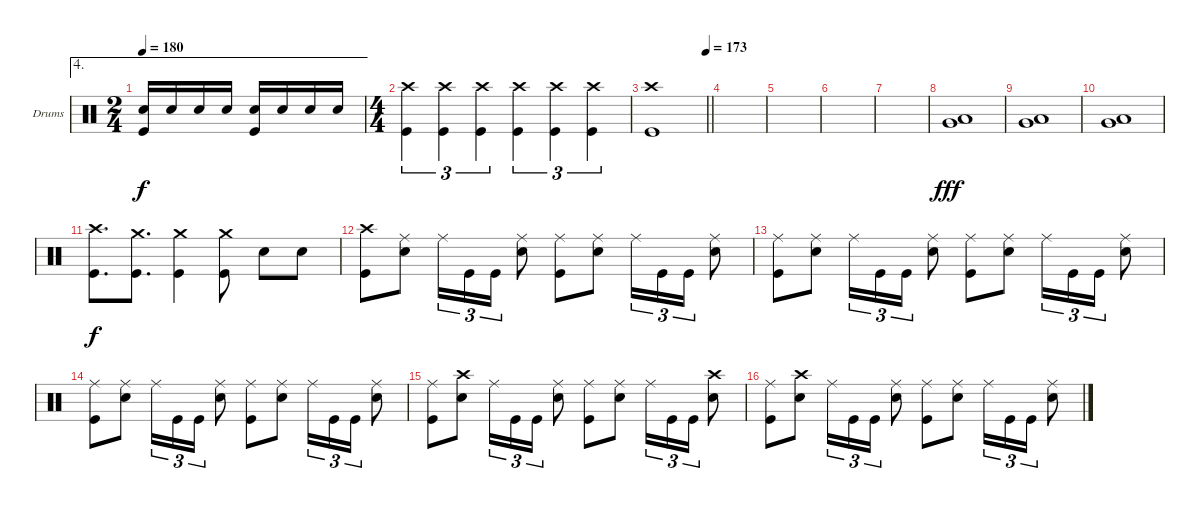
\bracketExtendMode groupsimilarinstruments
\firstSystemTrackNameOrientation horizontal
\otherSystemsTrackNameOrientation horizontal
\track ("Drums" "Drums") {instrument percussion}
\staff {score}
\articulation defaults
\ae 4
\ts (2 4)
\beaming (8 2 2)
\tempo 180
\clef neutral
\ks c
("Snare (hit) 2" "Kick (hit)").16{dy f} "Snare (hit) 2".16 "Snare (hit) 2".16 "Snare (hit) 2".16 ("Snare (hit) 2" "Kick (hit)").16 "Snare (hit) 2".16 "Snare (hit) 2".16 "Snare (hit) 2".16 |
\ts (4 4)
\beaming (8 2 2 2 2)
("Crash high (hit)" "Kick (hit)").4{tu (3 2)} ("Crash high (hit)" "Kick (hit)").4{tu (3 2)} ("Crash high (hit)" "Kick (hit)").4{tu (3 2)} ("Crash high (hit)" "Kick (hit)").4{tu (3 2)} ("Crash high (hit)" "Kick (hit)").4{tu (3 2)} ("Crash high (hit)" "Kick (hit)").4{tu (3 2)} |
\tempo (173 1)
\barLineRight lightlight
("Crash high (hit)" "Kick (hit)").1 |
|
|
|
|
("Very Low Tom (hit)" "Low Tom (hit)").1{dy fff} |
("Very Low Tom (hit)" "Low Tom (hit)").1 |
("Very Low Tom (hit)" "Low Tom (hit)").1 |
("Crash high (hit)" "Kick (hit)").8{d dy f} ("Kick (hit)" "Crash medium (hit)").8{d} ("Kick (hit)" "Crash medium (hit)").4 ("Kick (hit)" "Crash medium (hit)").8 "Snare (hit) 2".8 "Snare (hit) 2".8 |
("Crash high (hit)" "Kick (hit)").8 ("Snare (hit) 2" "Ride (middle)").8 "Ride (middle)".16{tu (3 2)} "Kick (hit)".16{tu (3 2)} "Kick (hit)".16{tu (3 2)} ("Snare (hit) 2" "Ride (middle)").8 ("Kick (hit)" "Ride (middle)").8 ("Snare (hit) 2" "Ride (middle)").8 "Ride (middle)".16{tu (3 2)} "Kick (hit)".16{tu (3 2)} "Kick (hit)".16{tu (3 2)} ("Snare (hit) 2" "Ride (middle)").8 |
("Kick (hit)" "Ride (middle)").8 ("Snare (hit) 2" "Ride (middle)").8 "Ride (middle)".16{tu (3 2)} "Kick (hit)".16{tu (3 2)} "Kick (hit)".16{tu (3 2)} ("Snare (hit) 2" "Ride (middle)").8 ("Kick (hit)" "Ride (middle)").8 ("Snare (hit) 2" "Ride (middle)").8 "Ride (middle)".16{tu (3 2)} "Kick (hit)".16{tu (3 2)} "Kick (hit)".16{tu (3 2)} ("Snare (hit) 2" "Ride (middle)").8 |
("Kick (hit)" "Ride (middle)").8 ("Snare (hit) 2" "Ride (middle)").8 "Ride (middle)".16{tu (3 2)} "Kick (hit)".16{tu (3 2)} "Kick (hit)".16{tu (3 2)} ("Snare (hit) 2" "Ride (middle)").8 ("Kick (hit)" "Ride (middle)").8 ("Snare (hit) 2" "Ride (middle)").8 "Ride (middle)".16{tu (3 2)} "Kick (hit)".16{tu (3 2)} "Kick (hit)".16{tu (3 2)} ("Snare (hit) 2" "Ride (middle)").8 |
("Kick (hit)" "Ride (middle)").8 ("Snare (hit) 2" "Crash high (hit)").8 "Ride (middle)".16{tu (3 2)} "Kick (hit)".16{tu (3 2)} "Kick (hit)".16{tu (3 2)} ("Snare (hit) 2" "Ride (middle)").8 ("Kick (hit)" "Ride (middle)").8 ("Snare (hit) 2" "Ride (middle)").8 "Ride (middle)".16{tu (3 2)} "Kick (hit)".16{tu (3 2)} "Kick (hit)".16{tu (3 2)} ("Snare (hit) 2" "Crash high (hit)").8 |
("Kick (hit)" "Ride (middle)").8 ("Snare (hit) 2" "Crash high (hit)").8 "Ride (middle)".16{tu (3 2)} "Kick (hit)".16{tu (3 2)} "Kick (hit)".16{tu (3 2)} ("Snare (hit) 2" "Ride (middle)").8 ("Kick (hit)" "Ride (middle)").8 ("Snare (hit) 2" "Ride (middle)").8 "Ride (middle)".16{tu (3 2)} "Kick (hit)".16{tu (3 2)} "Kick (hit)".16{tu (3 2)} ("Snare (hit) 2" "Ride (middle)").8
